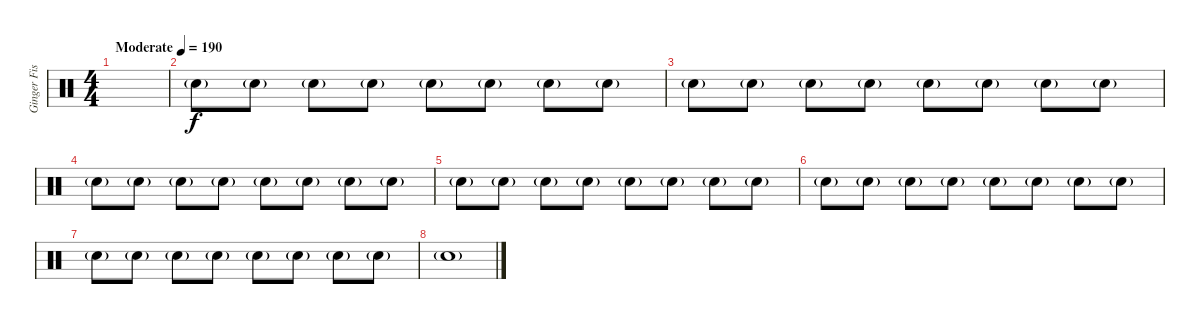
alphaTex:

\track ("Ginger Fish " "Ginger Fis") {instrument percussion}
\staff {score}
\articulation defaults
\ts (4 4)
\tempo (190 "Moderate")
\clef neutral
\ks c
|
"Electric Snare (hit)"{g}.8 "Electric Snare (hit)"{g}.8 "Electric Snare (hit)"{g}.8 "Electric Snare (hit)"{g}.8 "Electric Snare (hit)"{g}.8 "Electric Snare (hit)"{g}.8 "Electric Snare (hit)"{g}.8 "Electric Snare (hit)"{g}.8 |
"Electric Snare (hit)"{g}.8 "Electric Snare (hit)"{g}.8 "Electric Snare (hit)"{g}.8 "Electric Snare (hit)"{g}.8 "Electric Snare (hit)"{g}.8 "Electric Snare (hit)"{g}.8 "Electric Snare (hit)"{g}.8 "Electric Snare (hit)"{g}.8 |
"Electric Snare (hit)"{g}.8 "Electric Snare (hit)"{g}.8 "Electric Snare (hit)"{g}.8 "Electric Snare (hit)"{g}.8 "Electric Snare (hit)"{g}.8 "Electric Snare (hit)"{g}.8 "Electric Snare (hit)"{g}.8 "Electric Snare (hit)"{g}.8 |
"Electric Snare (hit)"{g}.8 "Electric Snare (hit)"{g}.8 "Electric Snare (hit)"{g}.8 "Electric Snare (hit)"{g}.8 "Electric Snare (hit)"{g}.8 "Electric Snare (hit)"{g}.8 "Electric Snare (hit)"{g}.8 "Electric Snare (hit)"{g}.8 |
"Electric Snare (hit)"{g}.8 "Electric Snare (hit)"{g}.8 "Electric Snare (hit)"{g}.8 "Electric Snare (hit)"{g}.8 "Electric Snare (hit)"{g}.8 "Electric Snare (hit)"{g}.8 "Electric Snare (hit)"{g}.8 "Electric Snare (hit)"{g}.8 |
"Electric Snare (hit)"{g}.8 "Electric Snare (hit)"{g}.8 "Electric Snare (hit)"{g}.8 "Electric Snare (hit)"{g}.8 "Electric Snare (hit)"{g}.8 "Electric Snare (hit)"{g}.8 "Electric Snare (hit)"{g}.8 "Electric Snare (hit)"{g}.8 |
"Electric Snare (hit)"{g}.1
